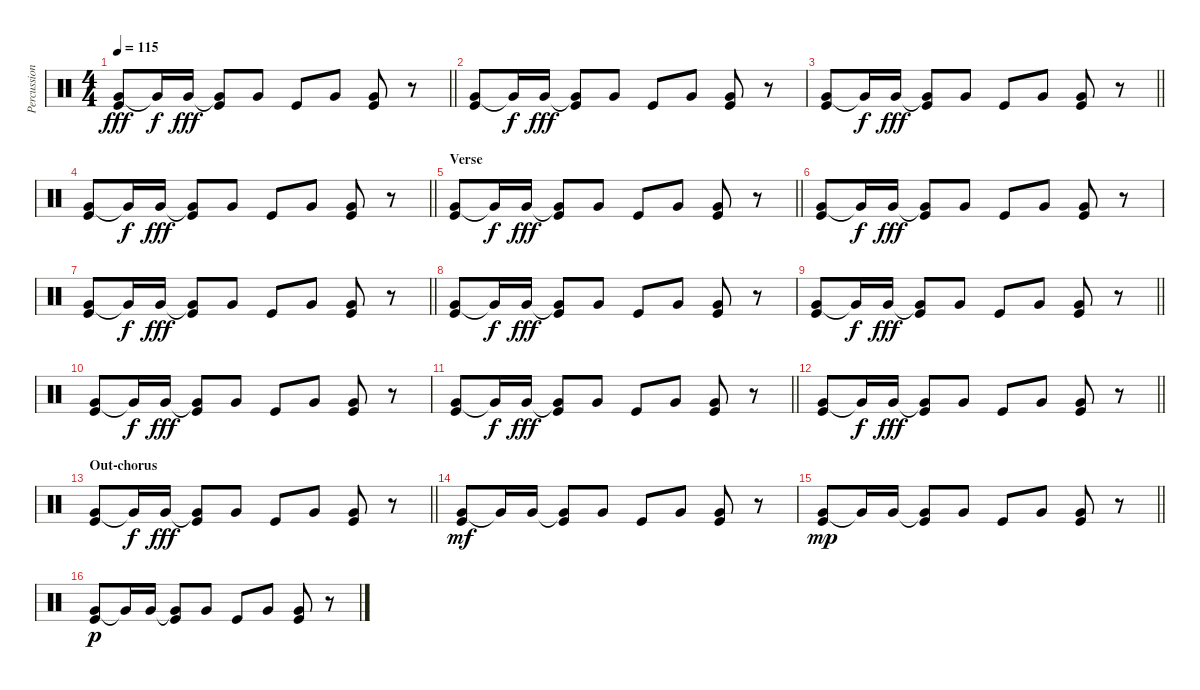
\track ("Percussion" "Percussion") {instrument percussion}
\staff {score}
\articulation defaults
\ts (4 4)
\tempo 115
\clef neutral
\barLineRight lightlight
\ks c
("Very Low Tom (hit)" "Kick (hit)").8{dy fff} "Very Low Tom (hit)"{t}.16{dy f} "Very Low Tom (hit)".16{dy fff} ("Very Low Tom (hit)"{t} "Kick (hit)").8 "Very Low Tom (hit)".8 "Kick (hit)".8 "Very Low Tom (hit)".8 ("Very Low Tom (hit)" "Kick (hit)").8 r.8 |
("Very Low Tom (hit)" "Kick (hit)").8 "Very Low Tom (hit)"{t}.16{dy f} "Very Low Tom (hit)".16{dy fff} ("Very Low Tom (hit)"{t} "Kick (hit)").8 "Very Low Tom (hit)".8 "Kick (hit)".8 "Very Low Tom (hit)".8 ("Very Low Tom (hit)" "Kick (hit)").8 r.8 |
\barLineRight lightlight
("Very Low Tom (hit)" "Kick (hit)").8 "Very Low Tom (hit)"{t}.16{dy f} "Very Low Tom (hit)".16{dy fff} ("Very Low Tom (hit)"{t} "Kick (hit)").8 "Very Low Tom (hit)".8 "Kick (hit)".8 "Very Low Tom (hit)".8 ("Very Low Tom (hit)" "Kick (hit)").8 r.8 |
\barLineRight lightlight
("Very Low Tom (hit)" "Kick (hit)").8 "Very Low Tom (hit)"{t}.16{dy f} "Very Low Tom (hit)".16{dy fff} ("Very Low Tom (hit)"{t} "Kick (hit)").8 "Very Low Tom (hit)".8 "Kick (hit)".8 "Very Low Tom (hit)".8 ("Very Low Tom (hit)" "Kick (hit)").8 r.8 |
\section ("" "Verse")
\barLineRight lightlight
("Very Low Tom (hit)" "Kick (hit)").8 "Very Low Tom (hit)"{t}.16{dy f} "Very Low Tom (hit)".16{dy fff} ("Very Low Tom (hit)"{t} "Kick (hit)").8 "Very Low Tom (hit)".8 "Kick (hit)".8 "Very Low Tom (hit)".8 ("Very Low Tom (hit)" "Kick (hit)").8 r.8 |
("Very Low Tom (hit)" "Kick (hit)").8 "Very Low Tom (hit)"{t}.16{dy f} "Very Low Tom (hit)".16{dy fff} ("Very Low Tom (hit)"{t} "Kick (hit)").8 "Very Low Tom (hit)".8 "Kick (hit)".8 "Very Low Tom (hit)".8 ("Very Low Tom (hit)" "Kick (hit)").8 r.8 |
\barLineRight lightlight
("Very Low Tom (hit)" "Kick (hit)").8 "Very Low Tom (hit)"{t}.16{dy f} "Very Low Tom (hit)".16{dy fff} ("Very Low Tom (hit)"{t} "Kick (hit)").8 "Very Low Tom (hit)".8 "Kick (hit)".8 "Very Low Tom (hit)".8 ("Very Low Tom (hit)" "Kick (hit)").8 r.8 |
("Very Low Tom (hit)" "Kick (hit)").8 "Very Low Tom (hit)"{t}.16{dy f} "Very Low Tom (hit)".16{dy fff} ("Very Low Tom (hit)"{t} "Kick (hit)").8 "Very Low Tom (hit)".8 "Kick (hit)".8 "Very Low Tom (hit)".8 ("Very Low Tom (hit)" "Kick (hit)").8 r.8 |
\barLineRight lightlight
("Very Low Tom (hit)" "Kick (hit)").8 "Very Low Tom (hit)"{t}.16{dy f} "Very Low Tom (hit)".16{dy fff} ("Very Low Tom (hit)"{t} "Kick (hit)").8 "Very Low Tom (hit)".8 "Kick (hit)".8 "Very Low Tom (hit)".8 ("Very Low Tom (hit)" "Kick (hit)").8 r.8 |
("Very Low Tom (hit)" "Kick (hit)").8 "Very Low Tom (hit)"{t}.16{dy f} "Very Low Tom (hit)".16{dy fff} ("Very Low Tom (hit)"{t} "Kick (hit)").8 "Very Low Tom (hit)".8 "Kick (hit)".8 "Very Low Tom (hit)".8 ("Very Low Tom (hit)" "Kick (hit)").8 r.8 |
\barLineRight lightlight
("Very Low Tom (hit)" "Kick (hit)").8 "Very Low Tom (hit)"{t}.16{dy f} "Very Low Tom (hit)".16{dy fff} ("Very Low Tom (hit)"{t} "Kick (hit)").8 "Very Low Tom (hit)".8 "Kick (hit)".8 "Very Low Tom (hit)".8 ("Very Low Tom (hit)" "Kick (hit)").8 r.8 |
\barLineRight lightlight
("Very Low Tom (hit)" "Kick (hit)").8 "Very Low Tom (hit)"{t}.16{dy f} "Very Low Tom (hit)".16{dy fff} ("Very Low Tom (hit)"{t} "Kick (hit)").8 "Very Low Tom (hit)".8 "Kick (hit)".8 "Very Low Tom (hit)".8 ("Very Low Tom (hit)" "Kick (hit)").8 r.8 |
\section ("" "Out-chorus")
\barLineRight lightlight
("Very Low Tom (hit)" "Kick (hit)").8 "Very Low Tom (hit)"{t}.16{dy f} "Very Low Tom (hit)".16{dy fff} ("Very Low Tom (hit)"{t} "Kick (hit)").8 "Very Low Tom (hit)".8 "Kick (hit)".8 "Very Low Tom (hit)".8 ("Very Low Tom (hit)" "Kick (hit)").8 r.8 |
("Very Low Tom (hit)" "Kick (hit)").8{dy mf} "Very Low Tom (hit)"{t}.16 "Very Low Tom (hit)".16 ("Very Low Tom (hit)"{t} "Kick (hit)").8 "Very Low Tom (hit)".8 "Kick (hit)".8 "Very Low Tom (hit)".8 ("Very Low Tom (hit)" "Kick (hit)").8 r.8 |
\barLineRight lightlight
("Very Low Tom (hit)" "Kick (hit)").8{dy mp} "Very Low Tom (hit)"{t}.16 "Very Low Tom (hit)".16 ("Very Low Tom (hit)"{t} "Kick (hit)").8 "Very Low Tom (hit)".8 "Kick (hit)".8 "Very Low Tom (hit)".8 ("Very Low Tom (hit)" "Kick (hit)").8 r.8 |
("Very Low Tom (hit)" "Kick (hit)").8{dy p} "Very Low Tom (hit)"{t}.16 "Very Low Tom (hit)".16 ("Very Low Tom (hit)"{t} "Kick (hit)").8 "Very Low Tom (hit)".8 "Kick (hit)".8 "Very Low Tom (hit)".8 ("Very Low Tom (hit)" "Kick (hit)").8 r.8
